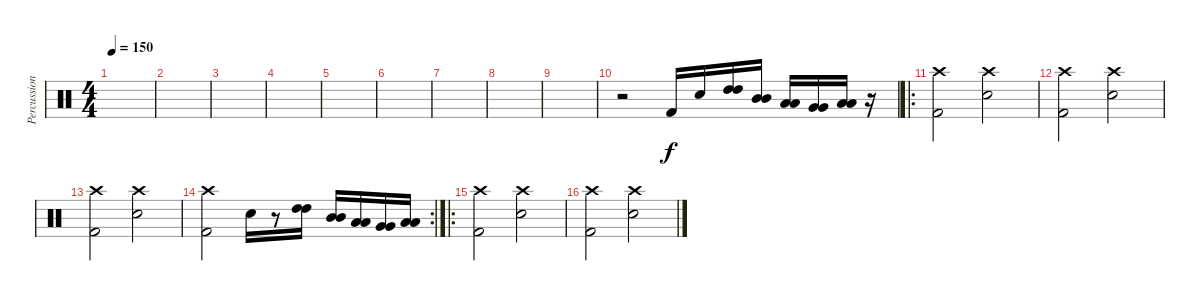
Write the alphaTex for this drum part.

\track ("Percussion" "Percussion") {instrument percussion}
\staff {score}
\articulation defaults
\ts (4 4)
\tempo 150
\clef neutral
\ks c
|
|
|
|
|
|
|
|
|
r.2 "Kick (hit) 2".16 "Electric Snare (hit)".16 ("High Tom (hit)" "High Tom (hit)").16 ("Mid Tom (hit)" "Mid Tom (hit)").16 ("Low Tom (hit)" "Low Tom (hit)").16 ("Very Low Tom (hit)" "Very Low Tom (hit)").16 ("Low Floor Tom (hit)" "Low Floor Tom (hit)").16 r.16 |
\ro
("Crash high (hit)" "Kick (hit) 2").2 ("Crash high (hit)" "Electric Snare (hit)").2 |
("Crash high (hit)" "Kick (hit) 2").2 ("Crash high (hit)" "Electric Snare (hit)").2 |
("Crash high (hit)" "Kick (hit) 2").2 ("Crash high (hit)" "Electric Snare (hit)").2 |
\rc 2
("Crash high (hit)" "Kick (hit) 2").2 "Electric Snare (hit)".16 r.8 ("High Tom (hit)" "High Tom (hit)").16 ("Mid Tom (hit)" "Mid Tom (hit)").16 ("Low Tom (hit)" "Low Tom (hit)").16 ("Very Low Tom (hit)" "Very Low Tom (hit)").16 ("Low Floor Tom (hit)" "Low Floor Tom (hit)").16 |
\ro
("Crash high (hit)" "Kick (hit) 2").2 ("Crash high (hit)" "Electric Snare (hit)").2 |
("Crash high (hit)" "Kick (hit) 2").2 ("Crash high (hit)" "Electric Snare (hit)").2
